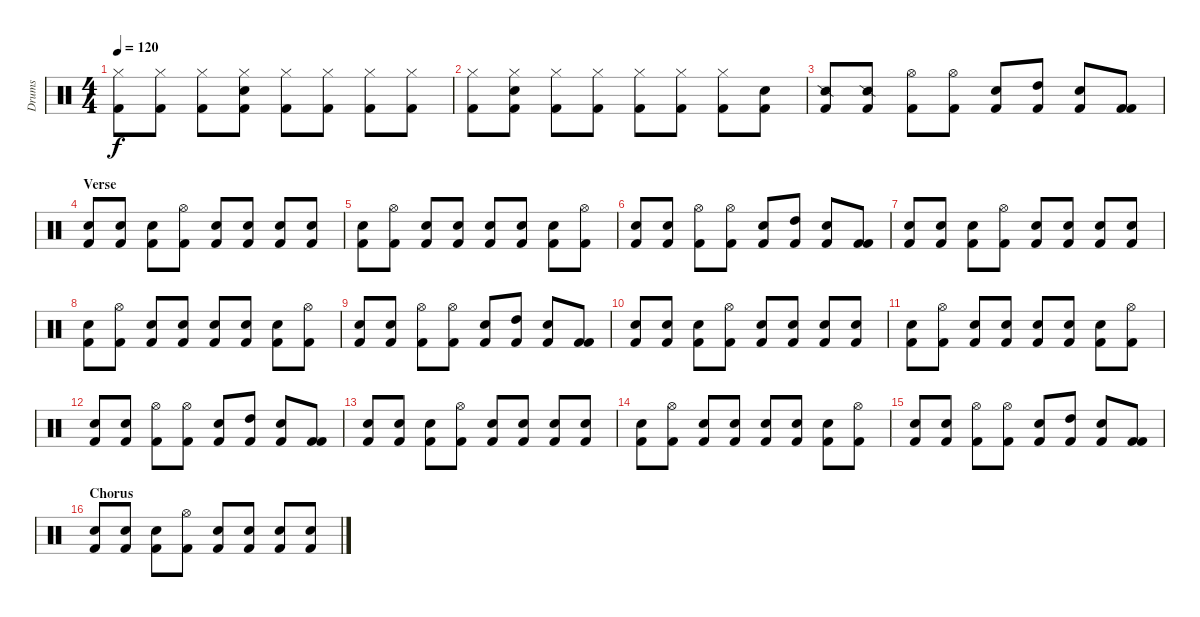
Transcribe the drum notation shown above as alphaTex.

\track ("Drums" "Drums") {instrument percussion}
\staff {score}
\articulation defaults
\ts (4 4)
\tempo 120
\clef neutral
\ks c
("Hi-Hat (closed)" "Kick (hit) 2").8{dy f} ("Hi-Hat (closed)" "Kick (hit) 2").8 ("Hi-Hat (closed)" "Kick (hit) 2").8 ("Hi-Hat (closed)" "Snare (hit) 2" "Kick (hit) 2").8 ("Hi-Hat (closed)" "Kick (hit) 2").8 ("Hi-Hat (closed)" "Kick (hit) 2").8 ("Hi-Hat (closed)" "Kick (hit) 2").8 ("Hi-Hat (closed)" "Kick (hit) 2").8 |
("Hi-Hat (closed)" "Kick (hit) 2").8 ("Snare (hit) 2" "Hi-Hat (closed)" "Kick (hit) 2").8 ("Hi-Hat (closed)" "Kick (hit) 2").8 ("Hi-Hat (closed)" "Kick (hit) 2").8 ("Hi-Hat (closed)" "Kick (hit) 2").8 ("Hi-Hat (closed)" "Kick (hit) 2").8 ("Hi-Hat (closed)" "Kick (hit) 2").8 ("Snare (hit) 2" "Kick (hit) 2").8 |
("Snare (side stick) 2" "Kick (hit) 2").8 ("Snare (side stick) 2" "Kick (hit) 2").8 ("Hi-Hat (open)" "Kick (hit) 2").8 ("Hi-Hat (open)" "Kick (hit) 2").8 ("Electric Snare (hit)" "Kick (hit) 2").8 ("High Tom (hit)" "Kick (hit) 2").8 ("Electric Snare (hit)" "Kick (hit) 2").8 ("Kick (hit) 2" "Kick (hit) 2").8 |
\section ("" "Verse")
("Electric Snare (hit)" "Kick (hit) 2").8 ("Electric Snare (hit)" "Kick (hit) 2").8 ("Electric Snare (hit)" "Kick (hit) 2").8 ("Hi-Hat (open)" "Kick (hit) 2").8 ("Electric Snare (hit)" "Kick (hit) 2").8 ("Electric Snare (hit)" "Kick (hit) 2").8 ("Electric Snare (hit)" "Kick (hit) 2").8 ("Electric Snare (hit)" "Kick (hit) 2").8 |
("Electric Snare (hit)" "Kick (hit) 2").8 ("Hi-Hat (open)" "Kick (hit) 2").8 ("Electric Snare (hit)" "Kick (hit) 2").8 ("Electric Snare (hit)" "Kick (hit) 2").8 ("Electric Snare (hit)" "Kick (hit) 2").8 ("Electric Snare (hit)" "Kick (hit) 2").8 ("Electric Snare (hit)" "Kick (hit) 2").8 ("Hi-Hat (open)" "Kick (hit) 2").8 |
("Electric Snare (hit)" "Kick (hit) 2").8 ("Electric Snare (hit)" "Kick (hit) 2").8 ("Hi-Hat (open)" "Kick (hit) 2").8 ("Hi-Hat (open)" "Kick (hit) 2").8 ("Electric Snare (hit)" "Kick (hit) 2").8 ("High Tom (hit)" "Kick (hit) 2").8 ("Electric Snare (hit)" "Kick (hit) 2").8 ("Kick (hit) 2" "Kick (hit) 2").8 |
("Electric Snare (hit)" "Kick (hit) 2").8 ("Electric Snare (hit)" "Kick (hit) 2").8 ("Electric Snare (hit)" "Kick (hit) 2").8 ("Hi-Hat (open)" "Kick (hit) 2").8 ("Electric Snare (hit)" "Kick (hit) 2").8 ("Electric Snare (hit)" "Kick (hit) 2").8 ("Electric Snare (hit)" "Kick (hit) 2").8 ("Electric Snare (hit)" "Kick (hit) 2").8 |
("Electric Snare (hit)" "Kick (hit) 2").8 ("Hi-Hat (open)" "Kick (hit) 2").8 ("Electric Snare (hit)" "Kick (hit) 2").8 ("Electric Snare (hit)" "Kick (hit) 2").8 ("Electric Snare (hit)" "Kick (hit) 2").8 ("Electric Snare (hit)" "Kick (hit) 2").8 ("Electric Snare (hit)" "Kick (hit) 2").8 ("Hi-Hat (open)" "Kick (hit) 2").8 |
("Electric Snare (hit)" "Kick (hit) 2").8 ("Electric Snare (hit)" "Kick (hit) 2").8 ("Hi-Hat (open)" "Kick (hit) 2").8 ("Hi-Hat (open)" "Kick (hit) 2").8 ("Electric Snare (hit)" "Kick (hit) 2").8 ("High Tom (hit)" "Kick (hit) 2").8 ("Electric Snare (hit)" "Kick (hit) 2").8 ("Kick (hit) 2" "Kick (hit) 2").8 |
("Electric Snare (hit)" "Kick (hit) 2").8 ("Electric Snare (hit)" "Kick (hit) 2").8 ("Electric Snare (hit)" "Kick (hit) 2").8 ("Hi-Hat (open)" "Kick (hit) 2").8 ("Electric Snare (hit)" "Kick (hit) 2").8 ("Electric Snare (hit)" "Kick (hit) 2").8 ("Electric Snare (hit)" "Kick (hit) 2").8 ("Electric Snare (hit)" "Kick (hit) 2").8 |
("Electric Snare (hit)" "Kick (hit) 2").8 ("Hi-Hat (open)" "Kick (hit) 2").8 ("Electric Snare (hit)" "Kick (hit) 2").8 ("Electric Snare (hit)" "Kick (hit) 2").8 ("Electric Snare (hit)" "Kick (hit) 2").8 ("Electric Snare (hit)" "Kick (hit) 2").8 ("Electric Snare (hit)" "Kick (hit) 2").8 ("Hi-Hat (open)" "Kick (hit) 2").8 |
("Electric Snare (hit)" "Kick (hit) 2").8 ("Electric Snare (hit)" "Kick (hit) 2").8 ("Hi-Hat (open)" "Kick (hit) 2").8 ("Hi-Hat (open)" "Kick (hit) 2").8 ("Electric Snare (hit)" "Kick (hit) 2").8 ("High Tom (hit)" "Kick (hit) 2").8 ("Electric Snare (hit)" "Kick (hit) 2").8 ("Kick (hit) 2" "Kick (hit) 2").8 |
("Electric Snare (hit)" "Kick (hit) 2").8 ("Electric Snare (hit)" "Kick (hit) 2").8 ("Electric Snare (hit)" "Kick (hit) 2").8 ("Hi-Hat (open)" "Kick (hit) 2").8 ("Electric Snare (hit)" "Kick (hit) 2").8 ("Electric Snare (hit)" "Kick (hit) 2").8 ("Electric Snare (hit)" "Kick (hit) 2").8 ("Electric Snare (hit)" "Kick (hit) 2").8 |
("Electric Snare (hit)" "Kick (hit) 2").8 ("Hi-Hat (open)" "Kick (hit) 2").8 ("Electric Snare (hit)" "Kick (hit) 2").8 ("Electric Snare (hit)" "Kick (hit) 2").8 ("Electric Snare (hit)" "Kick (hit) 2").8 ("Electric Snare (hit)" "Kick (hit) 2").8 ("Electric Snare (hit)" "Kick (hit) 2").8 ("Hi-Hat (open)" "Kick (hit) 2").8 |
("Electric Snare (hit)" "Kick (hit) 2").8 ("Electric Snare (hit)" "Kick (hit) 2").8 ("Hi-Hat (open)" "Kick (hit) 2").8 ("Hi-Hat (open)" "Kick (hit) 2").8 ("Electric Snare (hit)" "Kick (hit) 2").8 ("High Tom (hit)" "Kick (hit) 2").8 ("Electric Snare (hit)" "Kick (hit) 2").8 ("Kick (hit) 2" "Kick (hit) 2").8 |
\section ("" "Chorus")
("Electric Snare (hit)" "Kick (hit) 2").8 ("Electric Snare (hit)" "Kick (hit) 2").8 ("Electric Snare (hit)" "Kick (hit) 2").8 ("Hi-Hat (open)" "Kick (hit) 2").8 ("Electric Snare (hit)" "Kick (hit) 2").8 ("Electric Snare (hit)" "Kick (hit) 2").8 ("Electric Snare (hit)" "Kick (hit) 2").8 ("Electric Snare (hit)" "Kick (hit) 2").8
